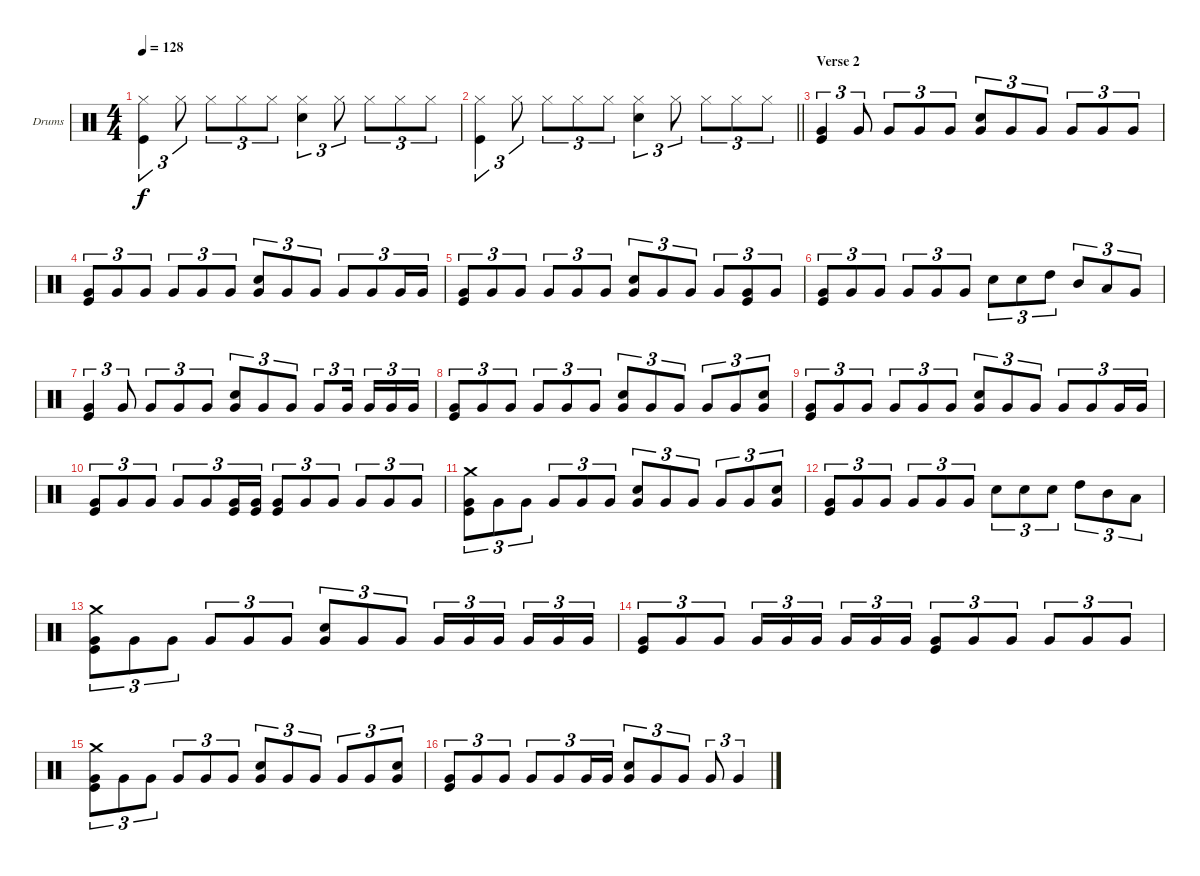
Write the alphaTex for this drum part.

\bracketExtendMode groupsimilarinstruments
\firstSystemTrackNameOrientation horizontal
\otherSystemsTrackNameOrientation horizontal
\track ("Drumkit" "Drums") {instrument percussion}
\staff {score}
\articulation defaults
\ts (4 4)
\tempo 128
\clef neutral
\ks c
("Hi-Hat (closed)" "Kick (hit)").4{tu (3 2) dy f} "Hi-Hat (closed)".8{tu (3 2)} "Hi-Hat (closed)".8{tu (3 2)} "Hi-Hat (closed)".8{tu (3 2)} "Hi-Hat (closed)".8{tu (3 2)} ("Hi-Hat (closed)" "Snare (hit) 2").4{tu (3 2)} "Hi-Hat (closed)".8{tu (3 2)} "Hi-Hat (closed)".8{tu (3 2)} "Hi-Hat (closed)".8{tu (3 2)} "Hi-Hat (closed)".8{tu (3 2)} |
\barLineRight lightlight
("Hi-Hat (closed)" "Kick (hit)").4{tu (3 2)} "Hi-Hat (closed)".8{tu (3 2)} "Hi-Hat (closed)".8{tu (3 2)} "Hi-Hat (closed)".8{tu (3 2)} "Hi-Hat (closed)".8{tu (3 2)} ("Hi-Hat (closed)" "Snare (hit) 2").4{tu (3 2)} "Hi-Hat (closed)".8{tu (3 2)} "Hi-Hat (closed)".8{tu (3 2)} "Hi-Hat (closed)".8{tu (3 2)} "Hi-Hat (closed)".8{tu (3 2)} |
\section ("" "Verse 2")
("Very Low Tom (hit)" "Kick (hit)").4{tu (3 2)} "Very Low Tom (hit)".8{tu (3 2)} "Very Low Tom (hit)".8{tu (3 2)} "Very Low Tom (hit)".8{tu (3 2)} "Very Low Tom (hit)".8{tu (3 2)} ("Very Low Tom (hit)" "Snare (hit) 2").8{tu (3 2)} "Very Low Tom (hit)".8{tu (3 2)} "Very Low Tom (hit)".8{tu (3 2)} "Very Low Tom (hit)".8{tu (3 2)} "Very Low Tom (hit)".8{tu (3 2)} "Very Low Tom (hit)".8{tu (3 2)} |
("Very Low Tom (hit)" "Kick (hit)").8{tu (3 2)} "Very Low Tom (hit)".8{tu (3 2)} "Very Low Tom (hit)".8{tu (3 2)} "Very Low Tom (hit)".8{tu (3 2)} "Very Low Tom (hit)".8{tu (3 2)} "Very Low Tom (hit)".8{tu (3 2)} ("Very Low Tom (hit)" "Snare (hit) 2").8{tu (3 2)} "Very Low Tom (hit)".8{tu (3 2)} "Very Low Tom (hit)".8{tu (3 2)} "Very Low Tom (hit)".8{tu (3 2)} "Very Low Tom (hit)".8{tu (3 2)} "Very Low Tom (hit)".16{tu (3 2)} "Very Low Tom (hit)".16{tu (3 2)} |
("Very Low Tom (hit)" "Kick (hit)").8{tu (3 2)} "Very Low Tom (hit)".8{tu (3 2)} "Very Low Tom (hit)".8{tu (3 2)} "Very Low Tom (hit)".8{tu (3 2)} "Very Low Tom (hit)".8{tu (3 2)} "Very Low Tom (hit)".8{tu (3 2)} ("Very Low Tom (hit)" "Snare (hit) 2").8{tu (3 2)} "Very Low Tom (hit)".8{tu (3 2)} "Very Low Tom (hit)".8{tu (3 2)} "Very Low Tom (hit)".8{tu (3 2)} ("Very Low Tom (hit)" "Kick (hit)").8{tu (3 2)} "Very Low Tom (hit)".8{tu (3 2)} |
("Very Low Tom (hit)" "Kick (hit)").8{tu (3 2)} "Very Low Tom (hit)".8{tu (3 2)} "Very Low Tom (hit)".8{tu (3 2)} "Very Low Tom (hit)".8{tu (3 2)} "Very Low Tom (hit)".8{tu (3 2)} "Very Low Tom (hit)".8{tu (3 2)} "Snare (hit) 2".8{tu (3 2)} "Snare (hit) 2".8{tu (3 2)} "High Tom (hit)".8{tu (3 2)} "Mid Tom (hit)".8{tu (3 2)} "Low Tom (hit)".8{tu (3 2)} "Very Low Tom (hit)".8{tu (3 2)} |
("Very Low Tom (hit)" "Kick (hit)").4{tu (3 2)} "Very Low Tom (hit)".8{tu (3 2)} "Very Low Tom (hit)".8{tu (3 2)} "Very Low Tom (hit)".8{tu (3 2)} "Very Low Tom (hit)".8{tu (3 2)} ("Very Low Tom (hit)" "Snare (hit) 2").8{tu (3 2)} "Very Low Tom (hit)".8{tu (3 2)} "Very Low Tom (hit)".8{tu (3 2)} "Very Low Tom (hit)".8{tu (3 2)} "Very Low Tom (hit)".16{tu (3 2)} "Very Low Tom (hit)".16{tu (3 2)} "Very Low Tom (hit)".16{tu (3 2)} "Very Low Tom (hit)".16{tu (3 2)} |
("Very Low Tom (hit)" "Kick (hit)").8{tu (3 2)} "Very Low Tom (hit)".8{tu (3 2)} "Very Low Tom (hit)".8{tu (3 2)} "Very Low Tom (hit)".8{tu (3 2)} "Very Low Tom (hit)".8{tu (3 2)} "Very Low Tom (hit)".8{tu (3 2)} ("Very Low Tom (hit)" "Snare (hit) 2").8{tu (3 2)} "Very Low Tom (hit)".8{tu (3 2)} "Very Low Tom (hit)".8{tu (3 2)} "Very Low Tom (hit)".8{tu (3 2)} "Very Low Tom (hit)".8{tu (3 2)} ("Very Low Tom (hit)" "Snare (hit) 2").8{tu (3 2)} |
("Very Low Tom (hit)" "Kick (hit)").8{tu (3 2)} "Very Low Tom (hit)".8{tu (3 2)} "Very Low Tom (hit)".8{tu (3 2)} "Very Low Tom (hit)".8{tu (3 2)} "Very Low Tom (hit)".8{tu (3 2)} "Very Low Tom (hit)".8{tu (3 2)} ("Very Low Tom (hit)" "Snare (hit) 2").8{tu (3 2)} "Very Low Tom (hit)".8{tu (3 2)} "Very Low Tom (hit)".8{tu (3 2)} "Very Low Tom (hit)".8{tu (3 2)} "Very Low Tom (hit)".8{tu (3 2)} "Very Low Tom (hit)".16{tu (3 2)} "Very Low Tom (hit)".16{tu (3 2)} |
("Very Low Tom (hit)" "Kick (hit)").8{tu (3 2)} "Very Low Tom (hit)".8{tu (3 2)} "Very Low Tom (hit)".8{tu (3 2)} "Very Low Tom (hit)".8{tu (3 2)} "Very Low Tom (hit)".8{tu (3 2)} ("Very Low Tom (hit)" "Kick (hit)").16{tu (3 2)} ("Very Low Tom (hit)" "Kick (hit)").16{tu (3 2)} ("Very Low Tom (hit)" "Kick (hit)").8{tu (3 2)} "Very Low Tom (hit)".8{tu (3 2)} "Very Low Tom (hit)".8{tu (3 2)} "Very Low Tom (hit)".8{tu (3 2)} "Very Low Tom (hit)".8{tu (3 2)} "Very Low Tom (hit)".8{tu (3 2)} |
("Crash medium (hit)" "Very Low Tom (hit)" "Kick (hit)").8{tu (3 2)} "Very Low Tom (hit)".8{tu (3 2)} "Very Low Tom (hit)".8{tu (3 2)} "Very Low Tom (hit)".8{tu (3 2)} "Very Low Tom (hit)".8{tu (3 2)} "Very Low Tom (hit)".8{tu (3 2)} ("Very Low Tom (hit)" "Snare (hit) 2").8{tu (3 2)} "Very Low Tom (hit)".8{tu (3 2)} "Very Low Tom (hit)".8{tu (3 2)} "Very Low Tom (hit)".8{tu (3 2)} "Very Low Tom (hit)".8{tu (3 2)} ("Very Low Tom (hit)" "Snare (hit) 2").8{tu (3 2)} |
("Very Low Tom (hit)" "Kick (hit)").8{tu (3 2)} "Very Low Tom (hit)".8{tu (3 2)} "Very Low Tom (hit)".8{tu (3 2)} "Very Low Tom (hit)".8{tu (3 2)} "Very Low Tom (hit)".8{tu (3 2)} "Very Low Tom (hit)".8{tu (3 2)} "Snare (hit) 2".8{tu (3 2)} "Snare (hit) 2".8{tu (3 2)} "Snare (hit) 2".8{tu (3 2)} "High Tom (hit)".8{tu (3 2)} "Mid Tom (hit)".8{tu (3 2)} "Low Tom (hit)".8{tu (3 2)} |
("Crash medium (hit)" "Very Low Tom (hit)" "Kick (hit)").8{tu (3 2)} "Very Low Tom (hit)".8{tu (3 2)} "Very Low Tom (hit)".8{tu (3 2)} "Very Low Tom (hit)".8{tu (3 2)} "Very Low Tom (hit)".8{tu (3 2)} "Very Low Tom (hit)".8{tu (3 2)} ("Very Low Tom (hit)" "Snare (hit) 2").8{tu (3 2)} "Very Low Tom (hit)".8{tu (3 2)} "Very Low Tom (hit)".8{tu (3 2)} "Very Low Tom (hit)".16{tu (3 2)} "Very Low Tom (hit)".16{tu (3 2)} "Very Low Tom (hit)".16{tu (3 2)} "Very Low Tom (hit)".16{tu (3 2)} "Very Low Tom (hit)".16{tu (3 2)} "Very Low Tom (hit)".16{tu (3 2)} |
("Very Low Tom (hit)" "Kick (hit)").8{tu (3 2)} "Very Low Tom (hit)".8{tu (3 2)} "Very Low Tom (hit)".8{tu (3 2)} "Very Low Tom (hit)".16{tu (3 2)} "Very Low Tom (hit)".16{tu (3 2)} "Very Low Tom (hit)".16{tu (3 2)} "Very Low Tom (hit)".16{tu (3 2)} "Very Low Tom (hit)".16{tu (3 2)} "Very Low Tom (hit)".16{tu (3 2)} ("Very Low Tom (hit)" "Kick (hit)").8{tu (3 2)} "Very Low Tom (hit)".8{tu (3 2)} "Very Low Tom (hit)".8{tu (3 2)} "Very Low Tom (hit)".8{tu (3 2)} "Very Low Tom (hit)".8{tu (3 2)} "Very Low Tom (hit)".8{tu (3 2)} |
("Crash medium (hit)" "Very Low Tom (hit)" "Kick (hit)").8{tu (3 2)} "Very Low Tom (hit)".8{tu (3 2)} "Very Low Tom (hit)".8{tu (3 2)} "Very Low Tom (hit)".8{tu (3 2)} "Very Low Tom (hit)".8{tu (3 2)} "Very Low Tom (hit)".8{tu (3 2)} ("Very Low Tom (hit)" "Snare (hit) 2").8{tu (3 2)} "Very Low Tom (hit)".8{tu (3 2)} "Very Low Tom (hit)".8{tu (3 2)} "Very Low Tom (hit)".8{tu (3 2)} "Very Low Tom (hit)".8{tu (3 2)} ("Very Low Tom (hit)" "Snare (hit) 2").8{tu (3 2)} |
("Very Low Tom (hit)" "Kick (hit)").8{tu (3 2)} "Very Low Tom (hit)".8{tu (3 2)} "Very Low Tom (hit)".8{tu (3 2)} "Very Low Tom (hit)".8{tu (3 2)} "Very Low Tom (hit)".8{tu (3 2)} "Very Low Tom (hit)".16{tu (3 2)} "Very Low Tom (hit)".16{tu (3 2)} ("Very Low Tom (hit)" "Snare (hit) 2").8{tu (3 2)} "Very Low Tom (hit)".8{tu (3 2)} "Very Low Tom (hit)".8{tu (3 2)} "Very Low Tom (hit)".8{tu (3 2)} "Very Low Tom (hit)".4{tu (3 2)}
